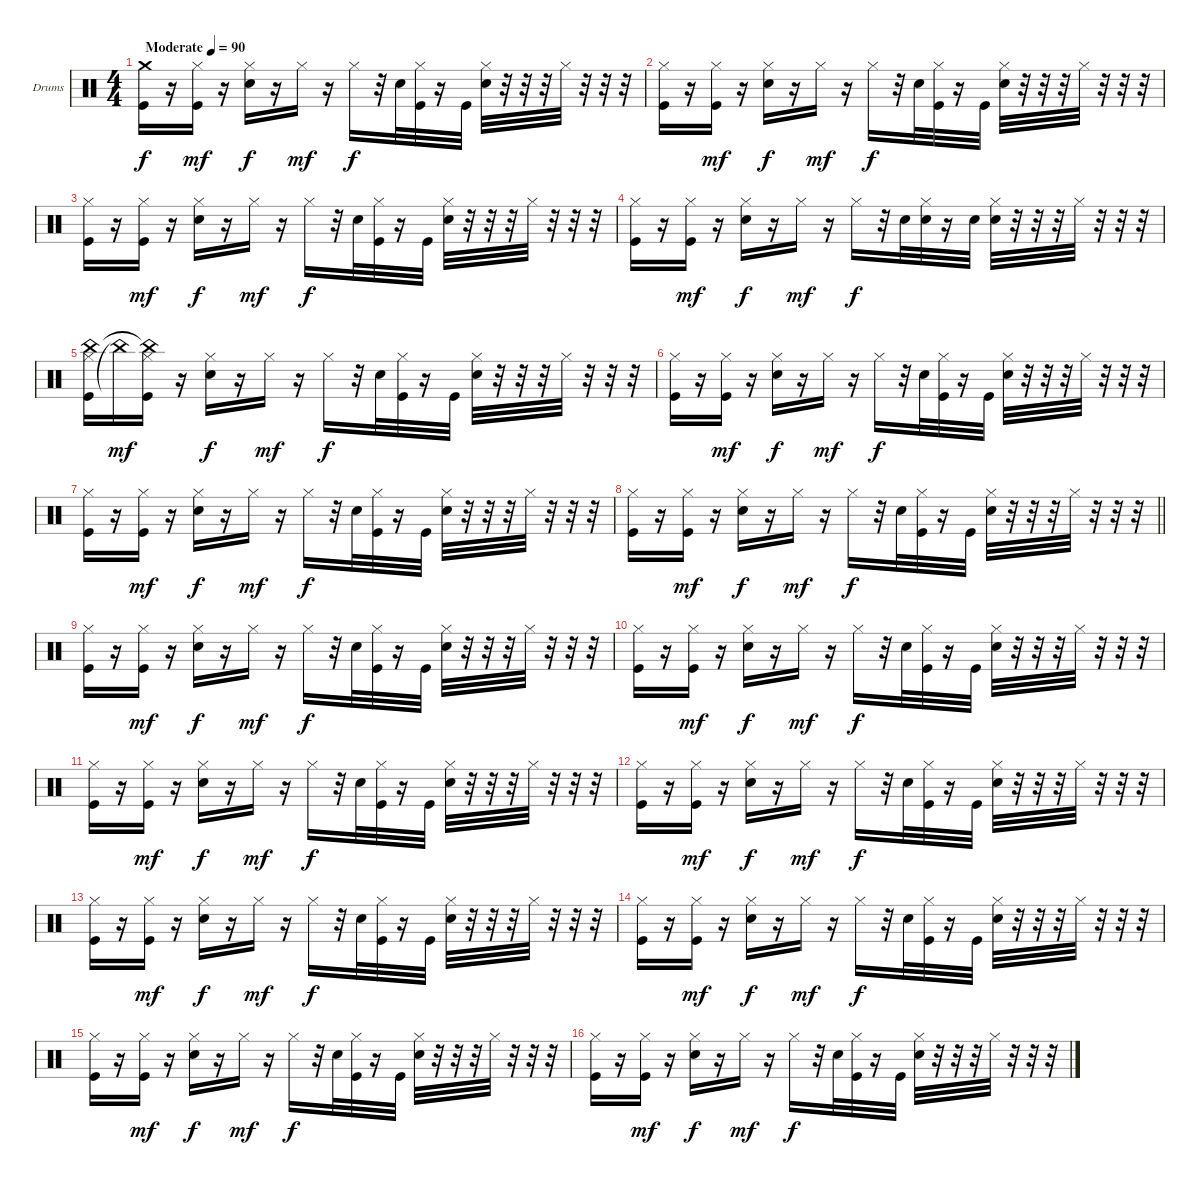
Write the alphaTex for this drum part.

\bracketExtendMode groupsimilarinstruments
\firstSystemTrackNameOrientation horizontal
\otherSystemsTrackNameOrientation horizontal
\track ("Ударная установка" "Drums") {instrument percussion}
\staff {score}
\articulation defaults
\ts (4 4)
\beaming (8 2 2 2 2)
\tempo (90 "Moderate")
\clef neutral
\ks c
("Crash medium (hit)" "Kick (hit)").16{dy f} r.16 ("Kick (hit)" "Hi-Hat (closed)").16{dy mf} r.16 ("Snare (hit) 2" "Hi-Hat (closed)").16{dy f} r.16 "Hi-Hat (closed)".16{dy mf} r.16 "Hi-Hat (closed)".16{dy f} r.32 "Snare (hit) 2".32 ("Kick (hit)" "Hi-Hat (closed)").32 r.16 "Kick (hit)".32 ("Snare (hit) 2" "Hi-Hat (closed)").32 r.32 r.32 r.32 "Hi-Hat (closed)".32 r.32 r.32 r.32 |
("Kick (hit)" "Hi-Hat (closed)").16 r.16 ("Kick (hit)" "Hi-Hat (closed)").16{dy mf} r.16 ("Snare (hit) 2" "Hi-Hat (closed)").16{dy f} r.16 "Hi-Hat (closed)".16{dy mf} r.16 "Hi-Hat (closed)".16{dy f} r.32 "Snare (hit) 2".32 ("Kick (hit)" "Hi-Hat (closed)").32 r.16 "Kick (hit)".32 ("Snare (hit) 2" "Hi-Hat (closed)").32 r.32 r.32 r.32 "Hi-Hat (closed)".32 r.32 r.32 r.32 |
("Kick (hit)" "Hi-Hat (closed)").16 r.16 ("Kick (hit)" "Hi-Hat (closed)").16{dy mf} r.16 ("Snare (hit) 2" "Hi-Hat (closed)").16{dy f} r.16 "Hi-Hat (closed)".16{dy mf} r.16 "Hi-Hat (closed)".16{dy f} r.32 "Snare (hit) 2".32 ("Kick (hit)" "Hi-Hat (closed)").32 r.16 "Kick (hit)".32 ("Snare (hit) 2" "Hi-Hat (closed)").32 r.32 r.32 r.32 "Hi-Hat (closed)".32 r.32 r.32 r.32 |
("Kick (hit)" "Hi-Hat (closed)").16 r.16 ("Kick (hit)" "Hi-Hat (closed)").16{dy mf} r.16 ("Snare (hit) 2" "Hi-Hat (closed)").16{dy f} r.16 "Hi-Hat (closed)".16{dy mf} r.16 "Hi-Hat (closed)".16{dy f} r.32 "Snare (hit) 2".32 ("Hi-Hat (closed)" "Snare (hit) 2").32 r.16 "Snare (hit) 2".32 ("Snare (hit) 2" "Hi-Hat (closed)").32 r.32 r.32 r.32 "Hi-Hat (closed)".32 r.32 r.32 r.32 |
("Kick (hit)" "Hi-Hat (closed)" "China (hit)").16 "China (hit)"{t}.16{dy mf} ("Kick (hit)" "Hi-Hat (closed)" "China (hit)"{t}).16 r.16 ("Snare (hit) 2" "Hi-Hat (closed)").16{dy f} r.16 "Hi-Hat (closed)".16{dy mf} r.16 "Hi-Hat (closed)".16{dy f} r.32 "Snare (hit) 2".32 ("Kick (hit)" "Hi-Hat (closed)").32 r.16 "Kick (hit)".32 ("Snare (hit) 2" "Hi-Hat (closed)").32 r.32 r.32 r.32 "Hi-Hat (closed)".32 r.32 r.32 r.32 |
("Kick (hit)" "Hi-Hat (closed)").16 r.16 ("Kick (hit)" "Hi-Hat (closed)").16{dy mf} r.16 ("Snare (hit) 2" "Hi-Hat (closed)").16{dy f} r.16 "Hi-Hat (closed)".16{dy mf} r.16 "Hi-Hat (closed)".16{dy f} r.32 "Snare (hit) 2".32 ("Kick (hit)" "Hi-Hat (closed)").32 r.16 "Kick (hit)".32 ("Snare (hit) 2" "Hi-Hat (closed)").32 r.32 r.32 r.32 "Hi-Hat (closed)".32 r.32 r.32 r.32 |
("Kick (hit)" "Hi-Hat (closed)").16 r.16 ("Kick (hit)" "Hi-Hat (closed)").16{dy mf} r.16 ("Snare (hit) 2" "Hi-Hat (closed)").16{dy f} r.16 "Hi-Hat (closed)".16{dy mf} r.16 "Hi-Hat (closed)".16{dy f} r.32 "Snare (hit) 2".32 ("Kick (hit)" "Hi-Hat (closed)").32 r.16 "Kick (hit)".32 ("Snare (hit) 2" "Hi-Hat (closed)").32 r.32 r.32 r.32 "Hi-Hat (closed)".32 r.32 r.32 r.32 |
\barLineRight lightlight
("Kick (hit)" "Hi-Hat (closed)").16 r.16 ("Kick (hit)" "Hi-Hat (closed)").16{dy mf} r.16 ("Snare (hit) 2" "Hi-Hat (closed)").16{dy f} r.16 "Hi-Hat (closed)".16{dy mf} r.16 "Hi-Hat (closed)".16{dy f} r.32 "Snare (hit) 2".32 ("Kick (hit)" "Hi-Hat (closed)").32 r.16 "Kick (hit)".32 ("Snare (hit) 2" "Hi-Hat (closed)").32 r.32 r.32 r.32 "Hi-Hat (closed)".32 r.32 r.32 r.32 |
("Kick (hit)" "Hi-Hat (closed)").16 r.16 ("Kick (hit)" "Hi-Hat (closed)").16{dy mf} r.16 ("Snare (hit) 2" "Hi-Hat (closed)").16{dy f} r.16 "Hi-Hat (closed)".16{dy mf} r.16 "Hi-Hat (closed)".16{dy f} r.32 "Snare (hit) 2".32 ("Kick (hit)" "Hi-Hat (closed)").32 r.16 "Kick (hit)".32 ("Snare (hit) 2" "Hi-Hat (closed)").32 r.32 r.32 r.32 "Hi-Hat (closed)".32 r.32 r.32 r.32 |
("Kick (hit)" "Hi-Hat (closed)").16 r.16 ("Kick (hit)" "Hi-Hat (closed)").16{dy mf} r.16 ("Snare (hit) 2" "Hi-Hat (closed)").16{dy f} r.16 "Hi-Hat (closed)".16{dy mf} r.16 "Hi-Hat (closed)".16{dy f} r.32 "Snare (hit) 2".32 ("Kick (hit)" "Hi-Hat (closed)").32 r.16 "Kick (hit)".32 ("Snare (hit) 2" "Hi-Hat (closed)").32 r.32 r.32 r.32 "Hi-Hat (closed)".32 r.32 r.32 r.32 |
("Kick (hit)" "Hi-Hat (closed)").16 r.16 ("Kick (hit)" "Hi-Hat (closed)").16{dy mf} r.16 ("Snare (hit) 2" "Hi-Hat (closed)").16{dy f} r.16 "Hi-Hat (closed)".16{dy mf} r.16 "Hi-Hat (closed)".16{dy f} r.32 "Snare (hit) 2".32 ("Kick (hit)" "Hi-Hat (closed)").32 r.16 "Kick (hit)".32 ("Snare (hit) 2" "Hi-Hat (closed)").32 r.32 r.32 r.32 "Hi-Hat (closed)".32 r.32 r.32 r.32 |
("Kick (hit)" "Hi-Hat (closed)").16 r.16 ("Kick (hit)" "Hi-Hat (closed)").16{dy mf} r.16 ("Snare (hit) 2" "Hi-Hat (closed)").16{dy f} r.16 "Hi-Hat (closed)".16{dy mf} r.16 "Hi-Hat (closed)".16{dy f} r.32 "Snare (hit) 2".32 ("Kick (hit)" "Hi-Hat (closed)").32 r.16 "Kick (hit)".32 ("Snare (hit) 2" "Hi-Hat (closed)").32 r.32 r.32 r.32 "Hi-Hat (closed)".32 r.32 r.32 r.32 |
("Kick (hit)" "Hi-Hat (closed)").16 r.16 ("Kick (hit)" "Hi-Hat (closed)").16{dy mf} r.16 ("Snare (hit) 2" "Hi-Hat (closed)").16{dy f} r.16 "Hi-Hat (closed)".16{dy mf} r.16 "Hi-Hat (closed)".16{dy f} r.32 "Snare (hit) 2".32 ("Kick (hit)" "Hi-Hat (closed)").32 r.16 "Kick (hit)".32 ("Snare (hit) 2" "Hi-Hat (closed)").32 r.32 r.32 r.32 "Hi-Hat (closed)".32 r.32 r.32 r.32 |
("Kick (hit)" "Hi-Hat (closed)").16 r.16 ("Kick (hit)" "Hi-Hat (closed)").16{dy mf} r.16 ("Snare (hit) 2" "Hi-Hat (closed)").16{dy f} r.16 "Hi-Hat (closed)".16{dy mf} r.16 "Hi-Hat (closed)".16{dy f} r.32 "Snare (hit) 2".32 ("Kick (hit)" "Hi-Hat (closed)").32 r.16 "Kick (hit)".32 ("Snare (hit) 2" "Hi-Hat (closed)").32 r.32 r.32 r.32 "Hi-Hat (closed)".32 r.32 r.32 r.32 |
("Kick (hit)" "Hi-Hat (closed)").16 r.16 ("Kick (hit)" "Hi-Hat (closed)").16{dy mf} r.16 ("Snare (hit) 2" "Hi-Hat (closed)").16{dy f} r.16 "Hi-Hat (closed)".16{dy mf} r.16 "Hi-Hat (closed)".16{dy f} r.32 "Snare (hit) 2".32 ("Kick (hit)" "Hi-Hat (closed)").32 r.16 "Kick (hit)".32 ("Snare (hit) 2" "Hi-Hat (closed)").32 r.32 r.32 r.32 "Hi-Hat (closed)".32 r.32 r.32 r.32 |
("Kick (hit)" "Hi-Hat (closed)").16 r.16 ("Kick (hit)" "Hi-Hat (closed)").16{dy mf} r.16 ("Snare (hit) 2" "Hi-Hat (closed)").16{dy f} r.16 "Hi-Hat (closed)".16{dy mf} r.16 "Hi-Hat (closed)".16{dy f} r.32 "Snare (hit) 2".32 ("Kick (hit)" "Hi-Hat (closed)").32 r.16 "Kick (hit)".32 ("Snare (hit) 2" "Hi-Hat (closed)").32 r.32 r.32 r.32 "Hi-Hat (closed)".32 r.32 r.32 r.32
